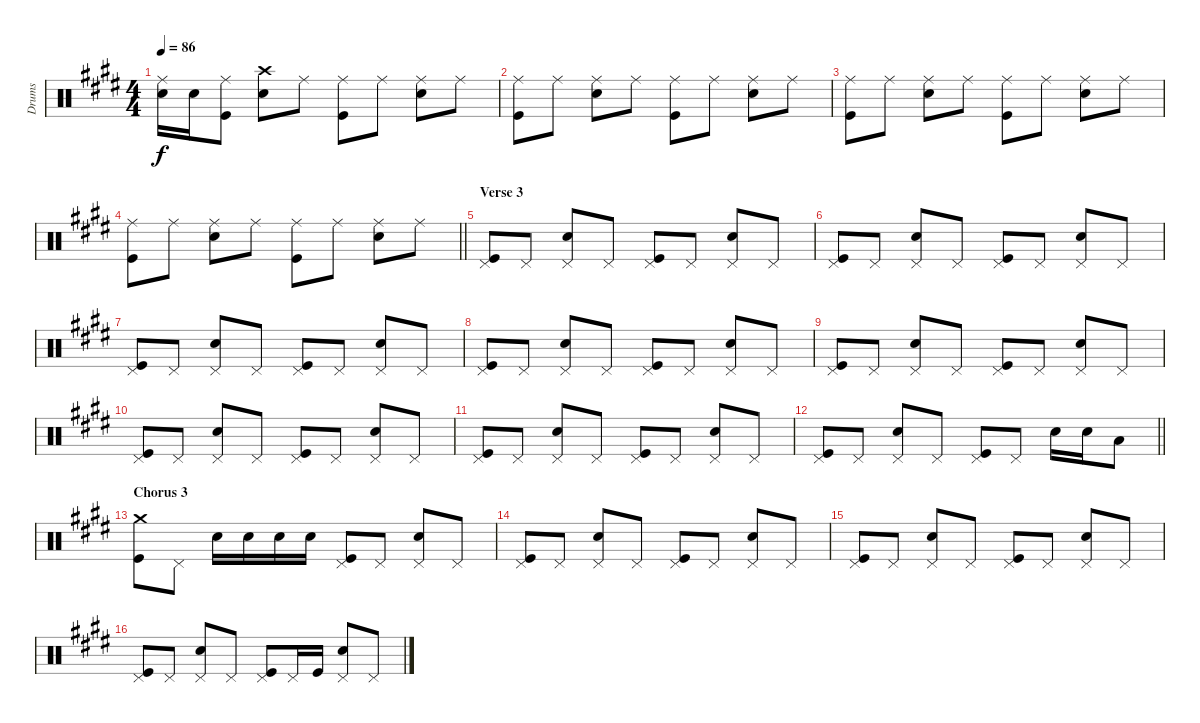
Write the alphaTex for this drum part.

\track ("Drums" "Drums") {instrument percussion}
\staff {score}
\articulation defaults
\ts (4 4)
\tempo 86
\clef neutral
\ks e
("Ride (middle)" "Snare (hit) 2").16{dy f} "Snare (hit) 2".16 ("Ride (middle)" "Kick (hit)").8 ("Crash high (hit)" "Snare (hit) 2").8 "Ride (middle)".8 ("Ride (middle)" "Kick (hit)").8 "Ride (middle)".8 ("Ride (middle)" "Snare (hit) 2").8 "Ride (middle)".8 |
("Ride (middle)" "Kick (hit)").8 "Ride (middle)".8 ("Ride (middle)" "Snare (hit) 2").8 "Ride (middle)".8 ("Ride (middle)" "Kick (hit)").8 "Ride (middle)".8 ("Ride (middle)" "Snare (hit) 2").8 "Ride (middle)".8 |
("Ride (middle)" "Kick (hit)").8 "Ride (middle)".8 ("Ride (middle)" "Snare (hit) 2").8 "Ride (middle)".8 ("Ride (middle)" "Kick (hit)").8 "Ride (middle)".8 ("Ride (middle)" "Snare (hit) 2").8 "Ride (middle)".8 |
\barLineRight lightlight
("Ride (middle)" "Kick (hit)").8 "Ride (middle)".8 ("Ride (middle)" "Snare (hit) 2").8 "Ride (middle)".8 ("Ride (middle)" "Kick (hit)").8 "Ride (middle)".8 ("Ride (middle)" "Snare (hit) 2").8 "Ride (middle)".8 |
\section ("" "Verse 3")
("Pedal Hi-Hat (hit)" "Kick (hit)").8 "Pedal Hi-Hat (hit)".8 ("Pedal Hi-Hat (hit)" "Snare (hit) 2").8 "Pedal Hi-Hat (hit)".8 ("Pedal Hi-Hat (hit)" "Kick (hit)").8 "Pedal Hi-Hat (hit)".8 ("Pedal Hi-Hat (hit)" "Snare (hit) 2").8 "Pedal Hi-Hat (hit)".8 |
("Pedal Hi-Hat (hit)" "Kick (hit)").8 "Pedal Hi-Hat (hit)".8 ("Pedal Hi-Hat (hit)" "Snare (hit) 2").8 "Pedal Hi-Hat (hit)".8 ("Pedal Hi-Hat (hit)" "Kick (hit)").8 "Pedal Hi-Hat (hit)".8 ("Pedal Hi-Hat (hit)" "Snare (hit) 2").8 "Pedal Hi-Hat (hit)".8 |
("Pedal Hi-Hat (hit)" "Kick (hit)").8 "Pedal Hi-Hat (hit)".8 ("Pedal Hi-Hat (hit)" "Snare (hit) 2").8 "Pedal Hi-Hat (hit)".8 ("Pedal Hi-Hat (hit)" "Kick (hit)").8 "Pedal Hi-Hat (hit)".8 ("Pedal Hi-Hat (hit)" "Snare (hit) 2").8 "Pedal Hi-Hat (hit)".8 |
("Pedal Hi-Hat (hit)" "Kick (hit)").8 "Pedal Hi-Hat (hit)".8 ("Pedal Hi-Hat (hit)" "Snare (hit) 2").8 "Pedal Hi-Hat (hit)".8 ("Pedal Hi-Hat (hit)" "Kick (hit)").8 "Pedal Hi-Hat (hit)".8 ("Pedal Hi-Hat (hit)" "Snare (hit) 2").8 "Pedal Hi-Hat (hit)".8 |
("Pedal Hi-Hat (hit)" "Kick (hit)").8 "Pedal Hi-Hat (hit)".8 ("Pedal Hi-Hat (hit)" "Snare (hit) 2").8 "Pedal Hi-Hat (hit)".8 ("Pedal Hi-Hat (hit)" "Kick (hit)").8 "Pedal Hi-Hat (hit)".8 ("Pedal Hi-Hat (hit)" "Snare (hit) 2").8 "Pedal Hi-Hat (hit)".8 |
("Pedal Hi-Hat (hit)" "Kick (hit)").8 "Pedal Hi-Hat (hit)".8 ("Pedal Hi-Hat (hit)" "Snare (hit) 2").8 "Pedal Hi-Hat (hit)".8 ("Pedal Hi-Hat (hit)" "Kick (hit)").8 "Pedal Hi-Hat (hit)".8 ("Pedal Hi-Hat (hit)" "Snare (hit) 2").8 "Pedal Hi-Hat (hit)".8 |
("Pedal Hi-Hat (hit)" "Kick (hit)").8 "Pedal Hi-Hat (hit)".8 ("Pedal Hi-Hat (hit)" "Snare (hit) 2").8 "Pedal Hi-Hat (hit)".8 ("Pedal Hi-Hat (hit)" "Kick (hit)").8 "Pedal Hi-Hat (hit)".8 ("Pedal Hi-Hat (hit)" "Snare (hit) 2").8 "Pedal Hi-Hat (hit)".8 |
\barLineRight lightlight
("Pedal Hi-Hat (hit)" "Kick (hit)").8 "Pedal Hi-Hat (hit)".8 ("Pedal Hi-Hat (hit)" "Snare (hit) 2").8 "Pedal Hi-Hat (hit)".8 ("Pedal Hi-Hat (hit)" "Kick (hit)").8 "Pedal Hi-Hat (hit)".8 "Snare (hit) 2".16 "Snare (hit) 2".16 "Low Tom (hit)".8 |
\section ("" "Chorus 3")
("Crash medium (hit)" "Kick (hit)").8 "Pedal Hi-Hat (hit)".8 "Snare (hit) 2".16 "Snare (hit) 2".16 "Snare (hit) 2".16 "Snare (hit) 2".16 ("Pedal Hi-Hat (hit)" "Kick (hit)").8 "Pedal Hi-Hat (hit)".8 ("Pedal Hi-Hat (hit)" "Snare (hit) 2").8 "Pedal Hi-Hat (hit)".8 |
("Pedal Hi-Hat (hit)" "Kick (hit)").8 "Pedal Hi-Hat (hit)".8 ("Pedal Hi-Hat (hit)" "Snare (hit) 2").8 "Pedal Hi-Hat (hit)".8 ("Pedal Hi-Hat (hit)" "Kick (hit)").8 "Pedal Hi-Hat (hit)".8 ("Pedal Hi-Hat (hit)" "Snare (hit) 2").8 "Pedal Hi-Hat (hit)".8 |
("Pedal Hi-Hat (hit)" "Kick (hit)").8 "Pedal Hi-Hat (hit)".8 ("Pedal Hi-Hat (hit)" "Snare (hit) 2").8 "Pedal Hi-Hat (hit)".8 ("Pedal Hi-Hat (hit)" "Kick (hit)").8 "Pedal Hi-Hat (hit)".8 ("Pedal Hi-Hat (hit)" "Snare (hit) 2").8 "Pedal Hi-Hat (hit)".8 |
("Pedal Hi-Hat (hit)" "Kick (hit)").8 "Pedal Hi-Hat (hit)".8 ("Pedal Hi-Hat (hit)" "Snare (hit) 2").8 "Pedal Hi-Hat (hit)".8 ("Pedal Hi-Hat (hit)" "Kick (hit)").8 "Pedal Hi-Hat (hit)".16 "Kick (hit)".16 ("Pedal Hi-Hat (hit)" "Snare (hit) 2").8 "Pedal Hi-Hat (hit)".8
